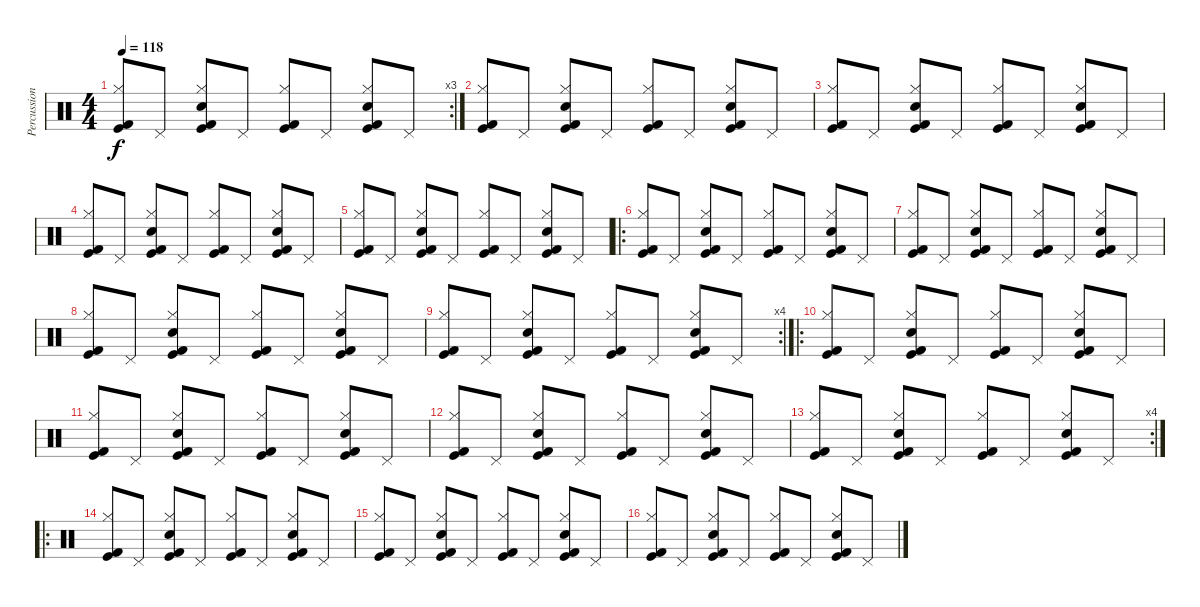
\track ("Percussion" "Percussion") {instrument percussion}
\staff {score}
\articulation defaults
\rc 3
\ts (4 4)
\tempo 118
\clef neutral
\ks c
("Kick (hit)" "Hi-Hat (closed)" "Kick (hit) 2").8{dy f} "Pedal Hi-Hat (hit)".8 ("Snare (hit) 2" "Kick (hit)" "Hi-Hat (closed)" "Kick (hit) 2").8 "Pedal Hi-Hat (hit)".8 ("Kick (hit)" "Hi-Hat (closed)" "Kick (hit) 2").8 "Pedal Hi-Hat (hit)".8 ("Snare (hit) 2" "Kick (hit)" "Hi-Hat (closed)" "Kick (hit) 2").8 "Pedal Hi-Hat (hit)".8 |
("Kick (hit)" "Hi-Hat (closed)" "Kick (hit) 2").8 "Pedal Hi-Hat (hit)".8 ("Snare (hit) 2" "Kick (hit)" "Hi-Hat (closed)" "Kick (hit) 2").8 "Pedal Hi-Hat (hit)".8 ("Kick (hit)" "Hi-Hat (closed)" "Kick (hit) 2").8 "Pedal Hi-Hat (hit)".8 ("Snare (hit) 2" "Kick (hit)" "Hi-Hat (closed)" "Kick (hit) 2").8 "Pedal Hi-Hat (hit)".8 |
("Kick (hit)" "Hi-Hat (closed)" "Kick (hit) 2").8 "Pedal Hi-Hat (hit)".8 ("Snare (hit) 2" "Kick (hit)" "Hi-Hat (closed)" "Kick (hit) 2").8 "Pedal Hi-Hat (hit)".8 ("Kick (hit)" "Hi-Hat (closed)" "Kick (hit) 2").8 "Pedal Hi-Hat (hit)".8 ("Snare (hit) 2" "Kick (hit)" "Hi-Hat (closed)" "Kick (hit) 2").8 "Pedal Hi-Hat (hit)".8 |
("Kick (hit)" "Hi-Hat (closed)" "Kick (hit) 2").8 "Pedal Hi-Hat (hit)".8 ("Snare (hit) 2" "Kick (hit)" "Hi-Hat (closed)" "Kick (hit) 2").8 "Pedal Hi-Hat (hit)".8 ("Kick (hit)" "Hi-Hat (closed)" "Kick (hit) 2").8 "Pedal Hi-Hat (hit)".8 ("Snare (hit) 2" "Kick (hit)" "Hi-Hat (closed)" "Kick (hit) 2").8 "Pedal Hi-Hat (hit)".8 |
("Kick (hit)" "Hi-Hat (closed)" "Kick (hit) 2").8 "Pedal Hi-Hat (hit)".8 ("Snare (hit) 2" "Kick (hit)" "Hi-Hat (closed)" "Kick (hit) 2").8 "Pedal Hi-Hat (hit)".8 ("Kick (hit)" "Hi-Hat (closed)" "Kick (hit) 2").8 "Pedal Hi-Hat (hit)".8 ("Snare (hit) 2" "Kick (hit)" "Hi-Hat (closed)" "Kick (hit) 2").8 "Pedal Hi-Hat (hit)".8 |
\ro
("Kick (hit)" "Hi-Hat (closed)" "Kick (hit) 2").8 "Pedal Hi-Hat (hit)".8 ("Snare (hit) 2" "Kick (hit)" "Hi-Hat (closed)" "Kick (hit) 2").8 "Pedal Hi-Hat (hit)".8 ("Kick (hit)" "Hi-Hat (closed)" "Kick (hit) 2").8 "Pedal Hi-Hat (hit)".8 ("Snare (hit) 2" "Kick (hit)" "Hi-Hat (closed)" "Kick (hit) 2").8 "Pedal Hi-Hat (hit)".8 |
("Kick (hit)" "Hi-Hat (closed)" "Kick (hit) 2").8 "Pedal Hi-Hat (hit)".8 ("Snare (hit) 2" "Kick (hit)" "Hi-Hat (closed)" "Kick (hit) 2").8 "Pedal Hi-Hat (hit)".8 ("Kick (hit)" "Hi-Hat (closed)" "Kick (hit) 2").8 "Pedal Hi-Hat (hit)".8 ("Snare (hit) 2" "Kick (hit)" "Hi-Hat (closed)" "Kick (hit) 2").8 "Pedal Hi-Hat (hit)".8 |
("Kick (hit)" "Hi-Hat (closed)" "Kick (hit) 2").8 "Pedal Hi-Hat (hit)".8 ("Snare (hit) 2" "Kick (hit)" "Hi-Hat (closed)" "Kick (hit) 2").8 "Pedal Hi-Hat (hit)".8 ("Kick (hit)" "Hi-Hat (closed)" "Kick (hit) 2").8 "Pedal Hi-Hat (hit)".8 ("Snare (hit) 2" "Kick (hit)" "Hi-Hat (closed)" "Kick (hit) 2").8 "Pedal Hi-Hat (hit)".8 |
\rc 4
("Kick (hit)" "Hi-Hat (closed)" "Kick (hit) 2").8 "Pedal Hi-Hat (hit)".8 ("Snare (hit) 2" "Kick (hit)" "Hi-Hat (closed)" "Kick (hit) 2").8 "Pedal Hi-Hat (hit)".8 ("Kick (hit)" "Hi-Hat (closed)" "Kick (hit) 2").8 "Pedal Hi-Hat (hit)".8 ("Snare (hit) 2" "Kick (hit)" "Hi-Hat (closed)" "Kick (hit) 2").8 "Pedal Hi-Hat (hit)".8 |
\ro
("Kick (hit)" "Hi-Hat (closed)" "Kick (hit) 2").8 "Pedal Hi-Hat (hit)".8 ("Snare (hit) 2" "Kick (hit)" "Hi-Hat (closed)" "Kick (hit) 2").8 "Pedal Hi-Hat (hit)".8 ("Kick (hit)" "Hi-Hat (closed)" "Kick (hit) 2").8 "Pedal Hi-Hat (hit)".8 ("Snare (hit) 2" "Kick (hit)" "Hi-Hat (closed)" "Kick (hit) 2").8 "Pedal Hi-Hat (hit)".8 |
("Kick (hit)" "Hi-Hat (closed)" "Kick (hit) 2").8 "Pedal Hi-Hat (hit)".8 ("Snare (hit) 2" "Kick (hit)" "Hi-Hat (closed)" "Kick (hit) 2").8 "Pedal Hi-Hat (hit)".8 ("Kick (hit)" "Hi-Hat (closed)" "Kick (hit) 2").8 "Pedal Hi-Hat (hit)".8 ("Snare (hit) 2" "Kick (hit)" "Hi-Hat (closed)" "Kick (hit) 2").8 "Pedal Hi-Hat (hit)".8 |
("Kick (hit)" "Hi-Hat (closed)" "Kick (hit) 2").8 "Pedal Hi-Hat (hit)".8 ("Snare (hit) 2" "Kick (hit)" "Hi-Hat (closed)" "Kick (hit) 2").8 "Pedal Hi-Hat (hit)".8 ("Kick (hit)" "Hi-Hat (closed)" "Kick (hit) 2").8 "Pedal Hi-Hat (hit)".8 ("Snare (hit) 2" "Kick (hit)" "Hi-Hat (closed)" "Kick (hit) 2").8 "Pedal Hi-Hat (hit)".8 |
\rc 4
("Kick (hit)" "Hi-Hat (closed)" "Kick (hit) 2").8 "Pedal Hi-Hat (hit)".8 ("Snare (hit) 2" "Kick (hit)" "Hi-Hat (closed)" "Kick (hit) 2").8 "Pedal Hi-Hat (hit)".8 ("Kick (hit)" "Hi-Hat (closed)" "Kick (hit) 2").8 "Pedal Hi-Hat (hit)".8 ("Snare (hit) 2" "Kick (hit)" "Hi-Hat (closed)" "Kick (hit) 2").8 "Pedal Hi-Hat (hit)".8 |
\ro
("Kick (hit)" "Hi-Hat (closed)" "Kick (hit) 2").8 "Pedal Hi-Hat (hit)".8 ("Snare (hit) 2" "Kick (hit)" "Hi-Hat (closed)" "Kick (hit) 2").8 "Pedal Hi-Hat (hit)".8 ("Kick (hit)" "Hi-Hat (closed)" "Kick (hit) 2").8 "Pedal Hi-Hat (hit)".8 ("Snare (hit) 2" "Kick (hit)" "Hi-Hat (closed)" "Kick (hit) 2").8 "Pedal Hi-Hat (hit)".8 |
("Kick (hit)" "Hi-Hat (closed)" "Kick (hit) 2").8 "Pedal Hi-Hat (hit)".8 ("Snare (hit) 2" "Kick (hit)" "Hi-Hat (closed)" "Kick (hit) 2").8 "Pedal Hi-Hat (hit)".8 ("Kick (hit)" "Hi-Hat (closed)" "Kick (hit) 2").8 "Pedal Hi-Hat (hit)".8 ("Snare (hit) 2" "Kick (hit)" "Hi-Hat (closed)" "Kick (hit) 2").8 "Pedal Hi-Hat (hit)".8 |
("Kick (hit)" "Hi-Hat (closed)" "Kick (hit) 2").8 "Pedal Hi-Hat (hit)".8 ("Snare (hit) 2" "Kick (hit)" "Hi-Hat (closed)" "Kick (hit) 2").8 "Pedal Hi-Hat (hit)".8 ("Kick (hit)" "Hi-Hat (closed)" "Kick (hit) 2").8 "Pedal Hi-Hat (hit)".8 ("Snare (hit) 2" "Kick (hit)" "Hi-Hat (closed)" "Kick (hit) 2").8 "Pedal Hi-Hat (hit)".8
